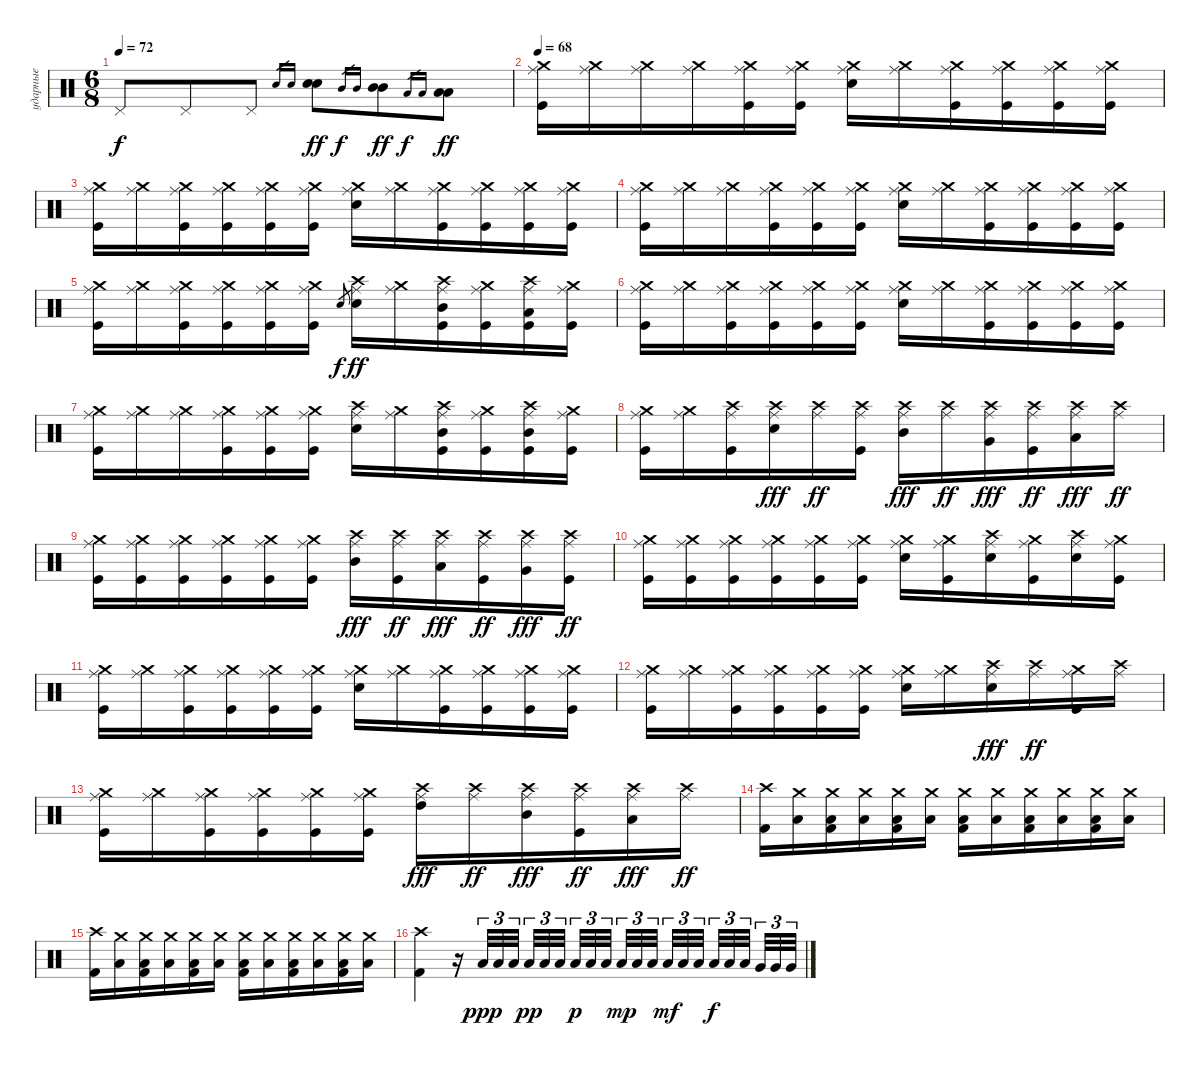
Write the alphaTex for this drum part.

\track ("ударные" "ударные") {instrument percussion}
\staff {score}
\articulation defaults
\ts (6 8)
\tempo 72
\clef neutral
\ks aminor "Pedal Hi-Hat (hit)".8{dy f} "Pedal Hi-Hat (hit)".8 "Pedal Hi-Hat (hit)".8 "Electric Snare (hit)".16{gr} "Electric Snare (hit)".16{gr}
("Electric Snare (hit)" "Electric Snare (hit)").8{dy ff} "Mid Tom (hit)".16{gr dy f} "Mid Tom (hit)".16{gr} ("Mid Tom (hit)" "Mid Tom (hit)").8{dy ff} "Low Tom (hit)".16{gr dy f} "Low Tom (hit)".16{gr} ("Low Tom (hit)" "Low Tom (hit)").8{dy ff} |
\tempo 68
("Crash medium (hit)" "Kick (hit)" "Ride (middle)").16 ("Crash medium (hit)" "Ride (middle)").16 ("Crash medium (hit)" "Ride (middle)").16 ("Crash medium (hit)" "Ride (middle)").16 ("Crash medium (hit)" "Kick (hit)" "Ride (middle)").16 ("Crash medium (hit)" "Kick (hit)" "Ride (middle)").16 ("Crash medium (hit)" "Snare (hit) 2" "Ride (middle)").16 ("Crash medium (hit)" "Ride (middle)").16 ("Crash medium (hit)" "Kick (hit)" "Ride (middle)").16 ("Crash medium (hit)" "Kick (hit)" "Ride (middle)").16 ("Crash medium (hit)" "Kick (hit)" "Ride (middle)").16 ("Crash medium (hit)" "Kick (hit)" "Ride (middle)").16 |
("Crash medium (hit)" "Kick (hit)" "Ride (middle)").16 ("Crash medium (hit)" "Ride (middle)").16 ("Crash medium (hit)" "Ride (middle)" "Kick (hit)").16 ("Crash medium (hit)" "Ride (middle)" "Kick (hit)").16 ("Crash medium (hit)" "Kick (hit)" "Ride (middle)").16 ("Crash medium (hit)" "Kick (hit)" "Ride (middle)").16 ("Crash medium (hit)" "Snare (hit) 2" "Ride (middle)").16 ("Crash medium (hit)" "Ride (middle)").16 ("Crash medium (hit)" "Kick (hit)" "Ride (middle)").16 ("Crash medium (hit)" "Kick (hit)" "Ride (middle)").16 ("Crash medium (hit)" "Kick (hit)" "Ride (middle)").16 ("Crash medium (hit)" "Kick (hit)" "Ride (middle)").16 |
("Crash medium (hit)" "Kick (hit)" "Ride (middle)").16 ("Crash medium (hit)" "Ride (middle)").16 ("Crash medium (hit)" "Ride (middle)").16 ("Crash medium (hit)" "Ride (middle)" "Kick (hit)").16 ("Crash medium (hit)" "Kick (hit)" "Ride (middle)").16 ("Crash medium (hit)" "Kick (hit)" "Ride (middle)").16 ("Crash medium (hit)" "Snare (hit) 2" "Ride (middle)").16 ("Crash medium (hit)" "Ride (middle)").16 ("Crash medium (hit)" "Kick (hit)" "Ride (middle)").16 ("Crash medium (hit)" "Kick (hit)" "Ride (middle)").16 ("Crash medium (hit)" "Kick (hit)" "Ride (middle)").16 ("Crash medium (hit)" "Kick (hit)" "Ride (middle)").16 |
("Crash medium (hit)" "Kick (hit)" "Ride (middle)").16 ("Crash medium (hit)" "Ride (middle)").16 ("Crash medium (hit)" "Ride (middle)" "Kick (hit)").16 ("Crash medium (hit)" "Ride (middle)" "Kick (hit)").16 ("Crash medium (hit)" "Kick (hit)" "Ride (middle)").16 ("Crash medium (hit)" "Kick (hit)" "Ride (middle)").16 "Snare (hit) 2".8{gr dy f} ("Snare (hit) 2" "Ride (middle)" "Crash high (hit)").16{dy ff} ("Crash medium (hit)" "Ride (middle)").16 ("Ride (middle)" "Crash high (hit)" "Mid Tom (hit)" "Kick (hit)").16 ("Crash medium (hit)" "Kick (hit)" "Ride (middle)").16 ("Low Tom (hit)" "Kick (hit)" "Ride (middle)" "Crash high (hit)").16 ("Crash medium (hit)" "Kick (hit)" "Ride (middle)").16 |
("Crash medium (hit)" "Kick (hit)" "Ride (middle)").16 ("Crash medium (hit)" "Ride (middle)").16 ("Crash medium (hit)" "Ride (middle)" "Kick (hit)").16 ("Crash medium (hit)" "Ride (middle)" "Kick (hit)").16 ("Crash medium (hit)" "Kick (hit)" "Ride (middle)").16 ("Crash medium (hit)" "Kick (hit)" "Ride (middle)").16 ("Crash medium (hit)" "Snare (hit) 2" "Ride (middle)").16 ("Crash medium (hit)" "Ride (middle)").16 ("Crash medium (hit)" "Kick (hit)" "Ride (middle)").16 ("Crash medium (hit)" "Kick (hit)" "Ride (middle)").16 ("Crash medium (hit)" "Kick (hit)" "Ride (middle)").16 ("Crash medium (hit)" "Kick (hit)" "Ride (middle)").16 |
("Crash medium (hit)" "Kick (hit)" "Ride (middle)").16 ("Crash medium (hit)" "Ride (middle)").16 ("Crash medium (hit)" "Ride (middle)").16 ("Crash medium (hit)" "Ride (middle)" "Kick (hit)").16 ("Crash medium (hit)" "Kick (hit)" "Ride (middle)").16 ("Crash medium (hit)" "Kick (hit)" "Ride (middle)").16 ("Snare (hit) 2" "Crash high (hit)" "Ride (middle)").16 ("Crash medium (hit)" "Ride (middle)").16 ("Ride (middle)" "Crash high (hit)" "Mid Tom (hit)" "Kick (hit)").16 ("Crash medium (hit)" "Kick (hit)" "Ride (middle)").16 ("Mid Tom (hit)" "Kick (hit)" "Ride (middle)" "Crash high (hit)").16 ("Crash medium (hit)" "Kick (hit)" "Ride (middle)").16 |
("Crash medium (hit)" "Kick (hit)" "Ride (middle)").16 ("Crash medium (hit)" "Ride (middle)").16 ("Ride (middle)" "Crash high (hit)" "Kick (hit)").16 ("Ride (middle)" "Crash high (hit)" "Snare (hit) 2").16{dy fff} ("Crash high (hit)" "Ride (middle)").16{dy ff} ("Crash high (hit)" "Ride (middle)" "Kick (hit)").16 ("Ride (middle)" "Crash high (hit)" "Mid Tom (hit)").16{dy fff} ("Crash high (hit)" "Ride (middle)").16{dy ff} ("Crash high (hit)" "Ride (middle)" "Very Low Tom (hit)").16{dy fff} ("Crash high (hit)" "Ride (middle)" "Kick (hit)").16{dy ff} ("Crash high (hit)" "Ride (middle)" "Low Tom (hit)").16{dy fff} ("Crash high (hit)" "Ride (middle)").16{dy ff} |
("Crash medium (hit)" "Kick (hit)" "Ride (middle)").16 ("Crash medium (hit)" "Ride (middle)" "Kick (hit)").16 ("Crash medium (hit)" "Ride (middle)" "Kick (hit)").16 ("Crash medium (hit)" "Ride (middle)" "Kick (hit)").16 ("Crash medium (hit)" "Kick (hit)" "Ride (middle)").16 ("Crash medium (hit)" "Kick (hit)" "Ride (middle)").16 ("Crash high (hit)" "Ride (middle)" "Mid Tom (hit)").16{dy fff} ("Crash high (hit)" "Ride (middle)" "Kick (hit)").16{dy ff} ("Crash high (hit)" "Ride (middle)" "Low Tom (hit)").16{dy fff} ("Crash high (hit)" "Ride (middle)" "Kick (hit)").16{dy ff} ("Crash high (hit)" "Ride (middle)" "Very Low Tom (hit)").16{dy fff} ("Crash high (hit)" "Ride (middle)" "Kick (hit)").16{dy ff} |
("Crash medium (hit)" "Kick (hit)" "Ride (middle)").16 ("Crash medium (hit)" "Ride (middle)" "Kick (hit)").16 ("Crash medium (hit)" "Ride (middle)" "Kick (hit)").16 ("Crash medium (hit)" "Ride (middle)" "Kick (hit)").16 ("Crash medium (hit)" "Kick (hit)" "Ride (middle)").16 ("Crash medium (hit)" "Kick (hit)" "Ride (middle)").16 ("Crash medium (hit)" "Snare (hit) 2" "Ride (middle)").16 ("Crash medium (hit)" "Ride (middle)" "Kick (hit)").16 ("Snare (hit) 2" "Crash high (hit)" "Ride (middle)").16 ("Crash medium (hit)" "Kick (hit)" "Ride (middle)").16 ("Snare (hit) 2" "Crash high (hit)" "Ride (middle)").16 ("Crash medium (hit)" "Kick (hit)" "Ride (middle)").16 |
("Crash medium (hit)" "Kick (hit)" "Ride (middle)").16 ("Crash medium (hit)" "Ride (middle)").16 ("Crash medium (hit)" "Ride (middle)" "Kick (hit)").16 ("Crash medium (hit)" "Ride (middle)" "Kick (hit)").16 ("Crash medium (hit)" "Kick (hit)" "Ride (middle)").16 ("Crash medium (hit)" "Kick (hit)" "Ride (middle)").16 ("Crash medium (hit)" "Snare (hit) 2" "Ride (middle)").16 ("Crash medium (hit)" "Ride (middle)").16 ("Crash medium (hit)" "Kick (hit)" "Ride (middle)").16 ("Crash medium (hit)" "Kick (hit)" "Ride (middle)").16 ("Crash medium (hit)" "Kick (hit)" "Ride (middle)").16 ("Crash medium (hit)" "Kick (hit)" "Ride (middle)").16 |
("Crash medium (hit)" "Kick (hit)" "Ride (middle)").16 ("Crash medium (hit)" "Ride (middle)").16 ("Crash medium (hit)" "Ride (middle)" "Kick (hit)").16 ("Crash medium (hit)" "Ride (middle)" "Kick (hit)").16 ("Crash medium (hit)" "Kick (hit)" "Ride (middle)").16 ("Crash medium (hit)" "Kick (hit)" "Ride (middle)").16 ("Crash medium (hit)" "Snare (hit) 2" "Ride (middle)").16 ("Crash medium (hit)" "Ride (middle)").16 ("Crash high (hit)" "Ride (middle)" "Snare (hit) 2").16{dy fff} ("Crash high (hit)" "Ride (middle)").16{dy ff} ("Crash medium (hit)" "Kick (hit)" "Ride (middle)").16 ("Crash high (hit)" "Ride (middle)").16 |
("Crash medium (hit)" "Kick (hit)" "Ride (middle)").16 ("Crash medium (hit)" "Ride (middle)").16 ("Crash medium (hit)" "Ride (middle)" "Kick (hit)").16 ("Crash medium (hit)" "Ride (middle)" "Kick (hit)").16 ("Crash medium (hit)" "Kick (hit)" "Ride (middle)").16 ("Crash medium (hit)" "Kick (hit)" "Ride (middle)").16 ("Crash high (hit)" "Ride (middle)" "High Tom (hit)").16{dy fff} ("Crash high (hit)" "Ride (middle)").16{dy ff} ("Crash high (hit)" "Ride (middle)" "Mid Tom (hit)").16{dy fff} ("Crash high (hit)" "Ride (middle)" "Kick (hit)").16{dy ff} ("Crash high (hit)" "Ride (middle)" "Low Tom (hit)").16{dy fff} ("Crash high (hit)" "Ride (middle)").16{dy ff} |
("Crash high (hit)" "Kick (hit) 2").16 ("Crash medium (hit)" "Low Floor Tom (hit)").16 ("Crash medium (hit)" "Kick (hit) 2" "Low Floor Tom (hit)").16 ("Crash medium (hit)" "Low Floor Tom (hit)").16 ("Crash medium (hit)" "Kick (hit) 2" "Low Floor Tom (hit)").16 ("Crash medium (hit)" "Low Floor Tom (hit)").16 ("Crash medium (hit)" "Kick (hit) 2" "Low Floor Tom (hit)").16 ("Crash medium (hit)" "Low Floor Tom (hit)").16 ("Crash medium (hit)" "Kick (hit) 2" "Low Floor Tom (hit)").16 ("Crash medium (hit)" "Low Floor Tom (hit)").16 ("Crash medium (hit)" "Kick (hit) 2" "Low Floor Tom (hit)").16 ("Crash medium (hit)" "Low Floor Tom (hit)").16 |
("Crash high (hit)" "Kick (hit) 2").16 ("Crash medium (hit)" "Low Floor Tom (hit)").16 ("Crash medium (hit)" "Kick (hit) 2" "Low Floor Tom (hit)").16 ("Crash medium (hit)" "Low Floor Tom (hit)").16 ("Crash medium (hit)" "Kick (hit) 2" "Low Floor Tom (hit)").16 ("Crash medium (hit)" "Low Floor Tom (hit)").16 ("Crash medium (hit)" "Kick (hit) 2" "Low Floor Tom (hit)").16 ("Crash medium (hit)" "Low Floor Tom (hit)").16 ("Crash medium (hit)" "Kick (hit) 2" "Low Floor Tom (hit)").16 ("Crash medium (hit)" "Low Floor Tom (hit)").16 ("Crash medium (hit)" "Kick (hit) 2" "Low Floor Tom (hit)").16 ("Crash medium (hit)" "Low Floor Tom (hit)").16 |
("Crash high (hit)" "Kick (hit) 2").4 r.16 "Low Floor Tom (hit)".32{tu (3 2) dy ppp} "Low Floor Tom (hit)".32{tu (3 2)} "Low Floor Tom (hit)".32{tu (3 2)} "Low Floor Tom (hit)".32{tu (3 2) dy pp} "Low Floor Tom (hit)".32{tu (3 2)} "Low Floor Tom (hit)".32{tu (3 2) beam splitsecondary} "Low Floor Tom (hit)".32{tu (3 2) dy p} "Low Floor Tom (hit)".32{tu (3 2)} "Low Floor Tom (hit)".32{tu (3 2) beam splitsecondary} "Low Floor Tom (hit)".32{tu (3 2) dy mp} "Low Floor Tom (hit)".32{tu (3 2)} "Low Floor Tom (hit)".32{tu (3 2) beam splitsecondary} "Low Floor Tom (hit)".32{tu (3 2) dy mf} "Low Floor Tom (hit)".32{tu (3 2)} "Low Floor Tom (hit)".32{tu (3 2) beam splitsecondary} "Low Floor Tom (hit)".32{tu (3 2) dy f} "Low Floor Tom (hit)".32{tu (3 2)} "Low Floor Tom (hit)".32{tu (3 2) beam splitsecondary} "Very Low Tom (hit)".32{tu (3 2)} "Very Low Tom (hit)".32{tu (3 2)} "Very Low Tom (hit)".32{tu (3 2)}
